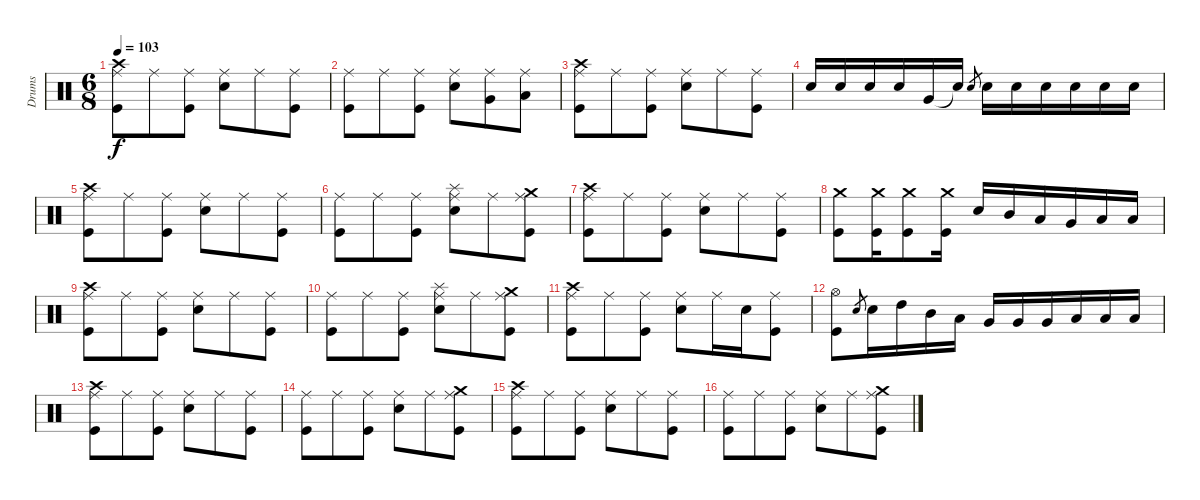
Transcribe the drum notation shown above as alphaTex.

\track ("Drums" "Drums") {instrument percussion}
\staff {score}
\articulation defaults
\ts (6 8)
\tempo 103
\clef neutral
\ks c
("Crash high (hit)" "Ride (middle)" "Kick (hit)").8{dy f} "Ride (middle)".8 ("Ride (middle)" "Kick (hit)").8 ("Ride (middle)" "Electric Snare (hit)").8 "Ride (middle)".8 ("Ride (middle)" "Kick (hit)").8 |
("Ride (middle)" "Kick (hit)").8 "Ride (middle)".8 ("Ride (middle)" "Kick (hit)").8 ("Ride (middle)" "Electric Snare (hit)").8 ("Ride (middle)" "Very Low Tom (hit)").8 ("Ride (middle)" "Low Floor Tom (hit)").8 |
("Crash high (hit)" "Ride (middle)" "Kick (hit)").8 "Ride (middle)".8 ("Ride (middle)" "Kick (hit)").8 ("Ride (middle)" "Electric Snare (hit)").8 "Ride (middle)".8 ("Ride (middle)" "Kick (hit)").8 |
"Electric Snare (hit)".16 "Electric Snare (hit)".16 "Electric Snare (hit)".16 "Electric Snare (hit)".16 "Very Low Tom (hit)".16 "Electric Snare (hit)"{t}.16 "Electric Snare (hit)".8{gr} "Electric Snare (hit)".16 "Electric Snare (hit)".16 "Electric Snare (hit)".16 "Electric Snare (hit)".16 "Electric Snare (hit)".16 "Electric Snare (hit)".16 |
("Crash high (hit)" "Ride (middle)" "Kick (hit)").8 "Ride (middle)".8 ("Ride (middle)" "Kick (hit)").8 ("Ride (middle)" "Electric Snare (hit)").8 "Ride (middle)".8 ("Ride (middle)" "Kick (hit)").8 |
("Ride (middle)" "Kick (hit)").8 "Ride (middle)".8 ("Ride (middle)" "Kick (hit)").8 ("Splash (hit)" "Ride (middle)" "Electric Snare (hit)").8 "Ride (middle)".8 ("Crash medium (hit)" "Ride (middle)" "Kick (hit)").8 |
("Crash high (hit)" "Ride (middle)" "Kick (hit)").8 "Ride (middle)".8 ("Ride (middle)" "Kick (hit)").8 ("Ride (middle)" "Electric Snare (hit)").8 "Ride (middle)".8 ("Ride (middle)" "Kick (hit)").8 |
("Crash medium (hit)" "Kick (hit)").8 ("Crash medium (hit)" "Kick (hit)").16 ("Crash medium (hit)" "Kick (hit)").8 ("Crash medium (hit)" "Kick (hit)").16 "Electric Snare (hit)".16 "Mid Tom (hit)".16 "Low Tom (hit)".16 "Very Low Tom (hit)".16 "Low Floor Tom (hit)".16 "Low Floor Tom (hit)".16 |
("Crash high (hit)" "Ride (middle)" "Kick (hit)").8 "Ride (middle)".8 ("Ride (middle)" "Kick (hit)").8 ("Ride (middle)" "Electric Snare (hit)").8 "Ride (middle)".8 ("Ride (middle)" "Kick (hit)").8 |
("Ride (middle)" "Kick (hit)").8 "Ride (middle)".8 ("Ride (middle)" "Kick (hit)").8 ("Splash (hit)" "Ride (middle)" "Electric Snare (hit)").8 "Ride (middle)".8 ("Crash medium (hit)" "Ride (middle)" "Kick (hit)").8 |
("Crash high (hit)" "Ride (middle)" "Kick (hit)").8 "Ride (middle)".8 ("Ride (middle)" "Kick (hit)").8 ("Ride (middle)" "Electric Snare (hit)").8 "Ride (middle)".16 "Electric Snare (hit)".16 ("Ride (middle)" "Kick (hit)").8 |
("Hi-Hat (open)" "Kick (hit)").8 "Electric Snare (hit)".8{gr} "Electric Snare (hit)".16 "High Tom (hit)".16 "Mid Tom (hit)".16 "Low Tom (hit)".16 "Very Low Tom (hit)".16 "Very Low Tom (hit)".16 "Very Low Tom (hit)".16 "Low Floor Tom (hit)".16 "Low Floor Tom (hit)".16 "Low Floor Tom (hit)".16 |
("Crash high (hit)" "Ride (middle)" "Kick (hit)").8 "Ride (middle)".8 ("Ride (middle)" "Kick (hit)").8 ("Ride (middle)" "Electric Snare (hit)").8 "Ride (middle)".8 ("Ride (middle)" "Kick (hit)").8 |
("Ride (middle)" "Kick (hit)").8 "Ride (middle)".8 ("Ride (middle)" "Kick (hit)").8 ("Ride (middle)" "Electric Snare (hit)").8 "Ride (middle)".8 ("Crash medium (hit)" "Ride (middle)" "Kick (hit)").8 |
("Crash high (hit)" "Ride (middle)" "Kick (hit)").8 "Ride (middle)".8 ("Ride (middle)" "Kick (hit)").8 ("Ride (middle)" "Electric Snare (hit)").8 "Ride (middle)".8 ("Ride (middle)" "Kick (hit)").8 |
("Ride (middle)" "Kick (hit)").8 "Ride (middle)".8 ("Ride (middle)" "Kick (hit)").8 ("Ride (middle)" "Electric Snare (hit)").8 "Ride (middle)".8 ("Crash medium (hit)" "Ride (middle)" "Kick (hit)").8
